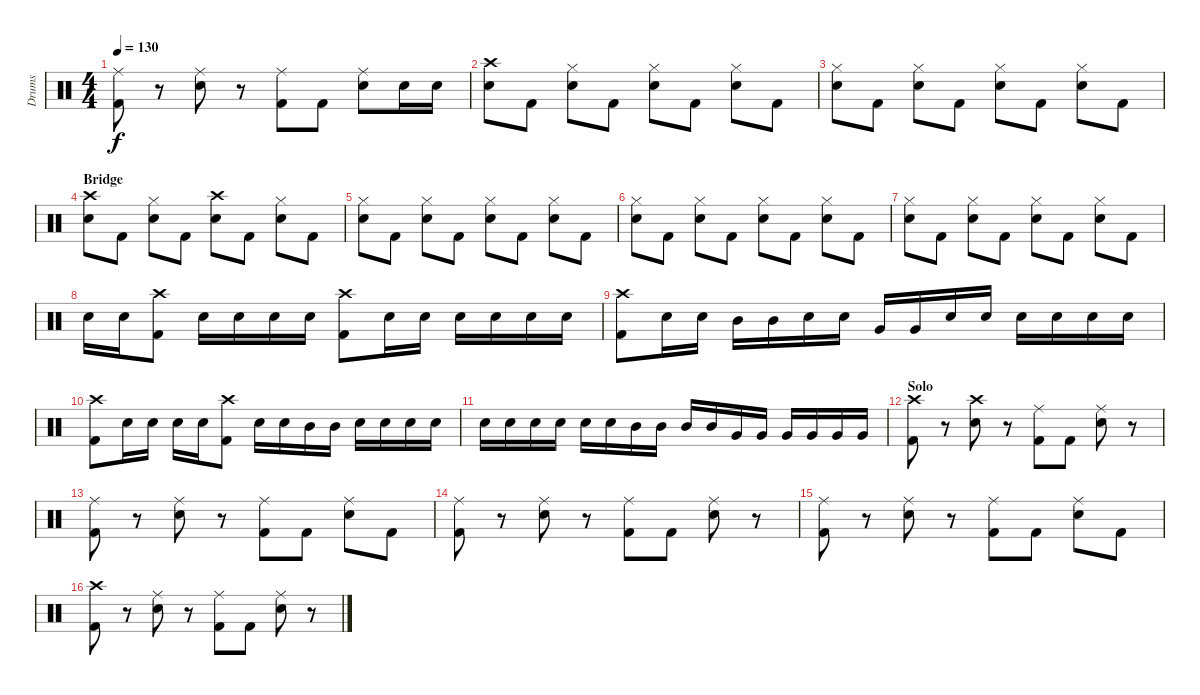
\track ("Drums" "Drums") {instrument percussion}
\staff {score}
\articulation defaults
\ts (4 4)
\tempo 130
\clef neutral
\ks c
("Ride (middle)" "Kick (hit) 2").8{dy f} r.8 ("Ride (middle)" "Electric Snare (hit)").8 r.8 ("Ride (middle)" "Kick (hit) 2").8 "Kick (hit) 2".8 ("Ride (middle)" "Electric Snare (hit)").8 "Electric Snare (hit)".16 "Electric Snare (hit)".16 |
("Crash high (hit)" "Electric Snare (hit)").8 "Kick (hit) 2".8 ("Hi-Hat (closed)" "Electric Snare (hit)").8 "Kick (hit) 2".8 ("Hi-Hat (closed)" "Electric Snare (hit)").8 "Kick (hit) 2".8 ("Hi-Hat (closed)" "Electric Snare (hit)").8 "Kick (hit) 2".8 |
("Hi-Hat (closed)" "Electric Snare (hit)").8 "Kick (hit) 2".8 ("Hi-Hat (closed)" "Electric Snare (hit)").8 "Kick (hit) 2".8 ("Hi-Hat (closed)" "Electric Snare (hit)").8 "Kick (hit) 2".8 ("Hi-Hat (closed)" "Electric Snare (hit)").8 "Kick (hit) 2".8 |
\section ("" "Bridge")
("Crash high (hit)" "Electric Snare (hit)").8 "Kick (hit) 2".8 ("Hi-Hat (closed)" "Electric Snare (hit)").8 "Kick (hit) 2".8 ("Crash high (hit)" "Electric Snare (hit)").8 "Kick (hit) 2".8 ("Hi-Hat (closed)" "Electric Snare (hit)").8 "Kick (hit) 2".8 |
("Hi-Hat (closed)" "Electric Snare (hit)").8 "Kick (hit) 2".8 ("Hi-Hat (closed)" "Electric Snare (hit)").8 "Kick (hit) 2".8 ("Hi-Hat (closed)" "Electric Snare (hit)").8 "Kick (hit) 2".8 ("Hi-Hat (closed)" "Electric Snare (hit)").8 "Kick (hit) 2".8 |
("Hi-Hat (closed)" "Electric Snare (hit)").8 "Kick (hit) 2".8 ("Hi-Hat (closed)" "Electric Snare (hit)").8 "Kick (hit) 2".8 ("Hi-Hat (closed)" "Electric Snare (hit)").8 "Kick (hit) 2".8 ("Hi-Hat (closed)" "Electric Snare (hit)").8 "Kick (hit) 2".8 |
("Hi-Hat (closed)" "Electric Snare (hit)").8 "Kick (hit) 2".8 ("Hi-Hat (closed)" "Electric Snare (hit)").8 "Kick (hit) 2".8 ("Hi-Hat (closed)" "Electric Snare (hit)").8 "Kick (hit) 2".8 ("Hi-Hat (closed)" "Electric Snare (hit)").8 "Kick (hit) 2".8 |
"Electric Snare (hit)".16 "Electric Snare (hit)".16 ("Crash high (hit)" "Kick (hit) 2").8 "Electric Snare (hit)".16 "Electric Snare (hit)".16 "Electric Snare (hit)".16 "Electric Snare (hit)".16 ("Crash high (hit)" "Kick (hit) 2").8 "Electric Snare (hit)".16 "Electric Snare (hit)".16 "Electric Snare (hit)".16 "Electric Snare (hit)".16 "Electric Snare (hit)".16 "Electric Snare (hit)".16 |
("Crash high (hit)" "Kick (hit) 2").8 "Electric Snare (hit)".16 "Electric Snare (hit)".16 "Mid Tom (hit)".16 "Mid Tom (hit)".16 "Electric Snare (hit)".16 "Electric Snare (hit)".16 "Very Low Tom (hit)".16 "Very Low Tom (hit)".16 "Electric Snare (hit)".16 "Electric Snare (hit)".16 "Electric Snare (hit)".16 "Electric Snare (hit)".16 "Electric Snare (hit)".16 "Electric Snare (hit)".16 |
("Crash high (hit)" "Kick (hit) 2").8 "Electric Snare (hit)".16 "Electric Snare (hit)".16 "Electric Snare (hit)".16 "Electric Snare (hit)".16 ("Crash high (hit)" "Kick (hit) 2").8 "Electric Snare (hit)".16 "Electric Snare (hit)".16 "Mid Tom (hit)".16 "Mid Tom (hit)".16 "Electric Snare (hit)".16 "Electric Snare (hit)".16 "Electric Snare (hit)".16 "Electric Snare (hit)".16 |
"Electric Snare (hit)".16 "Electric Snare (hit)".16 "Electric Snare (hit)".16 "Electric Snare (hit)".16 "Electric Snare (hit)".16 "Electric Snare (hit)".16 "Mid Tom (hit)".16 "Mid Tom (hit)".16 "Mid Tom (hit)".16 "Mid Tom (hit)".16 "Very Low Tom (hit)".16 "Very Low Tom (hit)".16 "Very Low Tom (hit)".16 "Very Low Tom (hit)".16 "Very Low Tom (hit)".16 "Very Low Tom (hit)".16 |
\section ("" "Solo")
("Crash high (hit)" "Kick (hit) 2").8 r.8 ("Crash high (hit)" "Electric Snare (hit)").8 r.8 ("Ride (middle)" "Kick (hit) 2").8 "Kick (hit) 2".8 ("Ride (middle)" "Electric Snare (hit)").8 r.8 |
("Ride (middle)" "Kick (hit) 2").8 r.8 ("Ride (middle)" "Electric Snare (hit)").8 r.8 ("Ride (middle)" "Kick (hit) 2").8 "Kick (hit) 2".8 ("Ride (middle)" "Electric Snare (hit)").8 "Kick (hit) 2".8 |
("Ride (middle)" "Kick (hit) 2").8 r.8 ("Ride (middle)" "Electric Snare (hit)").8 r.8 ("Ride (middle)" "Kick (hit) 2").8 "Kick (hit) 2".8 ("Ride (middle)" "Electric Snare (hit)").8 r.8 |
("Ride (middle)" "Kick (hit) 2").8 r.8 ("Ride (middle)" "Electric Snare (hit)").8 r.8 ("Ride (middle)" "Kick (hit) 2").8 "Kick (hit) 2".8 ("Ride (middle)" "Electric Snare (hit)").8 "Kick (hit) 2".8 |
("Crash high (hit)" "Kick (hit) 2").8 r.8 ("Ride (middle)" "Electric Snare (hit)").8 r.8 ("Ride (middle)" "Kick (hit) 2").8 "Kick (hit) 2".8 ("Ride (middle)" "Electric Snare (hit)").8 r.8
